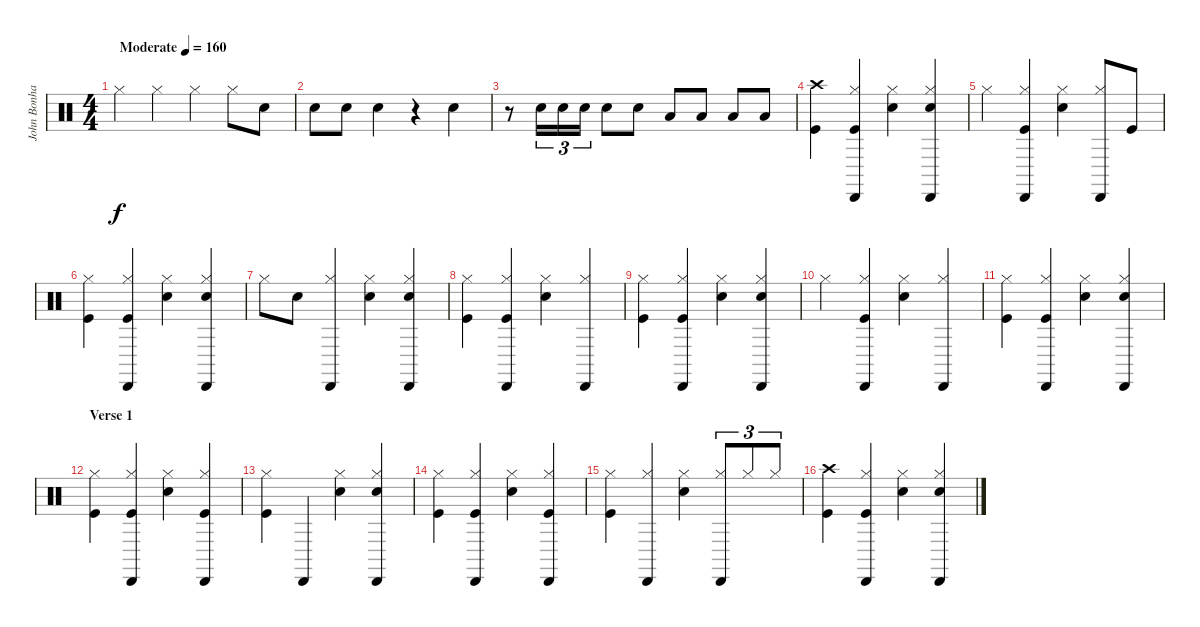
\track ("John Bonham - Drums" "John Bonha") {instrument percussion}
\staff {score}
\articulation defaults
\ts (4 4)
\tempo (160 "Moderate")
\clef neutral
\ks c "Hi-Hat (closed)".4{dy f} "Hi-Hat (closed)".4 "Hi-Hat (closed)".4 "Hi-Hat (closed)".8 "Snare (hit) 2".8
|
"Snare (hit) 2".8 "Snare (hit) 2".8 "Snare (hit) 2".4 r.4 "Snare (hit) 2".4 |
r.8 "Snare (hit) 2".16{tu (3 2)} "Snare (hit) 2".16{tu (3 2)} "Snare (hit) 2".16{tu (3 2)} "Snare (hit) 2".8 "Snare (hit) 2".8 "Low Tom (hit)".8 "Low Tom (hit)".8 "Low Floor Tom (hit)".8 "Low Floor Tom (hit)".8 |
("Crash high (hit)" "Kick (hit)").4 ("Hi-Hat (closed)" "Kick (hit)" "Cabasa (hit)").4 ("Hi-Hat (closed)" "Snare (hit) 2").4 ("Hi-Hat (closed)" "Snare (hit) 2" "Cabasa (hit)").4 |
"Hi-Hat (closed)".4 ("Kick (hit)" "Hi-Hat (closed)" "Cabasa (hit)").4 ("Snare (hit) 2" "Hi-Hat (closed)").4 ("Hi-Hat (closed)" "Cabasa (hit)").8 "Kick (hit)".8 |
("Kick (hit)" "Hi-Hat (closed)").4 ("Kick (hit)" "Hi-Hat (closed)" "Cabasa (hit)").4 ("Snare (hit) 2" "Hi-Hat (closed)").4 ("Snare (hit) 2" "Hi-Hat (closed)" "Cabasa (hit)").4 |
"Hi-Hat (closed)".8 "Snare (hit) 2".8 ("Hi-Hat (closed)" "Cabasa (hit)").4 ("Snare (hit) 2" "Hi-Hat (closed)").4 ("Snare (hit) 2" "Hi-Hat (closed)" "Cabasa (hit)").4 |
("Kick (hit)" "Hi-Hat (closed)").4 ("Kick (hit)" "Hi-Hat (closed)" "Cabasa (hit)").4 ("Snare (hit) 2" "Hi-Hat (closed)").4 ("Hi-Hat (closed)" "Cabasa (hit)").4 |
("Kick (hit)" "Hi-Hat (closed)").4 ("Kick (hit)" "Hi-Hat (closed)" "Cabasa (hit)").4 ("Snare (hit) 2" "Hi-Hat (closed)").4 ("Snare (hit) 2" "Hi-Hat (closed)" "Cabasa (hit)").4 |
"Hi-Hat (closed)".4 ("Kick (hit)" "Hi-Hat (closed)" "Cabasa (hit)").4 ("Snare (hit) 2" "Hi-Hat (closed)").4 ("Hi-Hat (closed)" "Cabasa (hit)").4 |
("Kick (hit)" "Hi-Hat (closed)").4 ("Kick (hit)" "Hi-Hat (closed)" "Cabasa (hit)").4 ("Snare (hit) 2" "Hi-Hat (closed)").4 ("Snare (hit) 2" "Hi-Hat (closed)" "Cabasa (hit)").4 |
\section ("" "Verse 1")
("Kick (hit)" "Hi-Hat (closed)").4 ("Kick (hit)" "Hi-Hat (closed)" "Cabasa (hit)").4 ("Snare (hit) 2" "Hi-Hat (closed)").4 ("Kick (hit)" "Hi-Hat (closed)" "Cabasa (hit)").4 |
("Kick (hit)" "Hi-Hat (closed)").4 "Cabasa (hit)".4 ("Snare (hit) 2" "Hi-Hat (closed)").4 ("Snare (hit) 2" "Hi-Hat (closed)" "Cabasa (hit)").4 |
("Kick (hit)" "Hi-Hat (closed)").4 ("Kick (hit)" "Hi-Hat (closed)" "Cabasa (hit)").4 ("Snare (hit) 2" "Hi-Hat (closed)").4 ("Kick (hit)" "Hi-Hat (closed)" "Cabasa (hit)").4 |
("Kick (hit)" "Hi-Hat (closed)").4 ("Hi-Hat (closed)" "Cabasa (hit)").4 ("Snare (hit) 2" "Hi-Hat (closed)").4 ("Hi-Hat (closed)" "Cabasa (hit)").8{tu (3 2)} "Hi-Hat (closed)".8{tu (3 2)} "Hi-Hat (closed)".8{tu (3 2)} |
("Kick (hit)" "Crash high (hit)").4 ("Hi-Hat (closed)" "Kick (hit)" "Cabasa (hit)").4 ("Hi-Hat (closed)" "Snare (hit) 2").4 ("Hi-Hat (closed)" "Snare (hit) 2" "Cabasa (hit)").4
